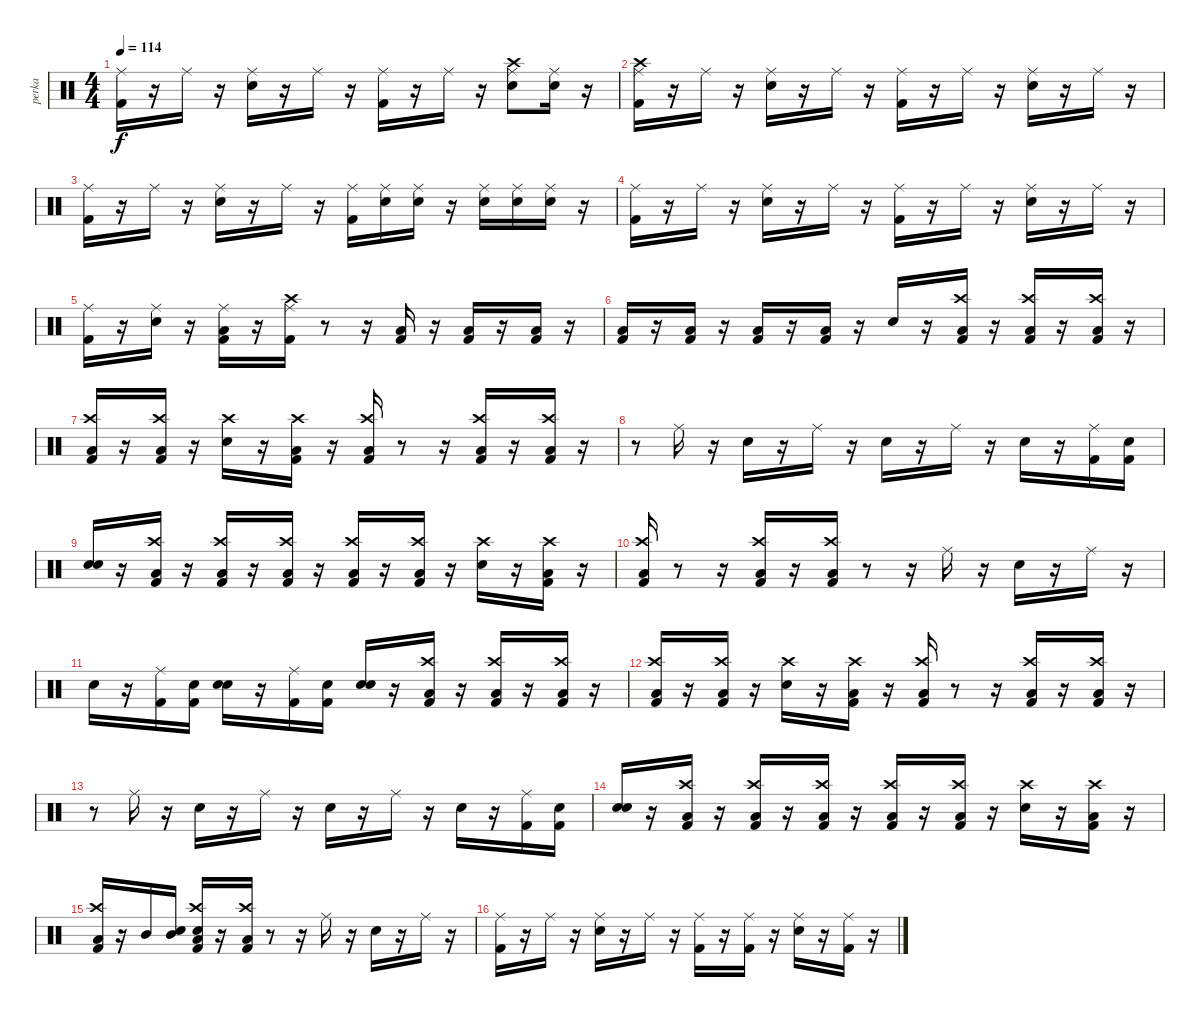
\track ("perka" "perka") {instrument percussion}
\staff {score}
\articulation defaults
\ts (4 4)
\tempo 114
\clef neutral
\ks c
("Kick (hit) 2" "Ride (middle)").16{dy f} r.16 "Ride (middle)".16 r.16 ("Snare (hit) 2" "Ride (middle)").16 r.16 "Ride (middle)".16 r.16 ("Kick (hit) 2" "Ride (middle)").16 r.16 "Ride (middle)".16 r.16 ("Snare (hit) 2" "Ride (middle)" "Crash high (hit)").8 ("Snare (hit)" "Ride (middle)").16 r.16 |
("Kick (hit) 2" "Ride (middle)" "Crash high (hit)").16 r.16 "Ride (middle)".16 r.16 ("Snare (hit) 2" "Ride (middle)").16 r.16 "Ride (middle)".16 r.16 ("Kick (hit) 2" "Ride (middle)").16 r.16 "Ride (middle)".16 r.16 ("Snare (hit) 2" "Ride (middle)").16 r.16 "Ride (middle)".16 r.16 |
("Kick (hit) 2" "Ride (middle)").16 r.16 "Ride (middle)".16 r.16 ("Snare (hit) 2" "Ride (middle)").16 r.16 "Ride (middle)".16 r.16 ("Kick (hit) 2" "Ride (middle)").16 ("Snare (hit)" "Ride (middle)").16 ("Snare (hit)" "Ride (middle)").16 r.16 ("Snare (hit) 2" "Ride (middle)").16 ("Snare (hit)" "Ride (middle)").16 ("Snare (hit)" "Ride (middle)").16 r.16 |
("Kick (hit) 2" "Ride (middle)").16 r.16 "Ride (middle)".16 r.16 ("Snare (hit) 2" "Ride (middle)").16 r.16 "Ride (middle)".16 r.16 ("Kick (hit) 2" "Ride (middle)").16 r.16 "Ride (middle)".16 r.16 ("Snare (hit) 2" "Ride (middle)").16 r.16 "Ride (middle)".16 r.16 |
("Kick (hit) 2" "Ride (middle)").16 r.16 ("Snare (hit) 2" "Ride (middle)").16 r.16 ("Kick (hit) 2" "Ride (middle)" "Low Tom (hit)").16 r.16 ("Kick (hit) 2" "Ride (middle)" "Crash high (hit)").16 r.8 r.16 ("Kick (hit) 2" "Low Floor Tom (hit)").16 r.16 ("Kick (hit) 2" "Low Floor Tom (hit)").16 r.16 ("Kick (hit) 2" "Low Floor Tom (hit)").16 r.16 |
("Kick (hit) 2" "Low Floor Tom (hit)").16 r.16 ("Kick (hit) 2" "Low Floor Tom (hit)").16 r.16 ("Kick (hit) 2" "Low Floor Tom (hit)").16 r.16 ("Kick (hit) 2" "Low Floor Tom (hit)").16 r.16 "Snare (hit) 2".16 r.16 ("Kick (hit) 2" "Low Floor Tom (hit)" "Crash high (hit)").16 r.16 ("Kick (hit) 2" "Low Floor Tom (hit)" "Crash high (hit)").16 r.16 ("Kick (hit) 2" "Low Floor Tom (hit)" "Crash high (hit)").16 r.16 |
("Kick (hit) 2" "Low Floor Tom (hit)" "Crash high (hit)").16 r.16 ("Kick (hit) 2" "Low Floor Tom (hit)" "Crash high (hit)").16 r.16 ("Snare (hit) 2" "Crash high (hit)").16 r.16 ("Kick (hit) 2" "Low Floor Tom (hit)" "Crash high (hit)").16 r.16 ("Kick (hit) 2" "Low Floor Tom (hit)" "Crash high (hit)").16 r.8 r.16 ("Kick (hit) 2" "Low Floor Tom (hit)" "Crash high (hit)").16 r.16 ("Kick (hit) 2" "Low Floor Tom (hit)" "Crash high (hit)").16 r.16 |
r.8 "Ride (middle)".16 r.16 "Snare (hit) 2".16 r.16 "Ride (middle)".16 r.16 "Snare (hit) 2".16 r.16 "Ride (middle)".16 r.16 "Snare (hit) 2".16 r.16 ("Kick (hit) 2" "Ride (middle)").16 ("Snare (hit)" "Kick (hit) 2").16 |
("Snare (hit)" "Snare (hit) 2").16 r.16 ("Kick (hit) 2" "Low Floor Tom (hit)" "Crash high (hit)").16 r.16 ("Kick (hit) 2" "Low Floor Tom (hit)" "Crash high (hit)").16 r.16 ("Kick (hit) 2" "Low Floor Tom (hit)" "Crash high (hit)").16 r.16 ("Kick (hit) 2" "Low Floor Tom (hit)" "Crash high (hit)").16 r.16 ("Kick (hit) 2" "Low Floor Tom (hit)" "Crash high (hit)").16 r.16 ("Snare (hit) 2" "Crash high (hit)").16 r.16 ("Kick (hit) 2" "Low Floor Tom (hit)" "Crash high (hit)").16 r.16 |
("Kick (hit) 2" "Low Floor Tom (hit)" "Crash high (hit)").16 r.8 r.16 ("Kick (hit) 2" "Low Floor Tom (hit)" "Crash high (hit)").16 r.16 ("Kick (hit) 2" "Low Floor Tom (hit)" "Crash high (hit)").16 r.8 r.16 "Ride (middle)".16 r.16 "Snare (hit) 2".16 r.16 "Ride (middle)".16 r.16 |
"Snare (hit) 2".16 r.16 ("Kick (hit) 2" "Ride (middle)").16 ("Snare (hit)" "Kick (hit) 2").16 ("Snare (hit)" "Snare (hit) 2").16 r.16 ("Kick (hit) 2" "Ride (middle)").16 ("Snare (hit)" "Kick (hit) 2").16 ("Snare (hit)" "Snare (hit) 2").16 r.16 ("Kick (hit) 2" "Low Floor Tom (hit)" "Crash high (hit)").16 r.16 ("Kick (hit) 2" "Low Floor Tom (hit)" "Crash high (hit)").16 r.16 ("Kick (hit) 2" "Low Floor Tom (hit)" "Crash high (hit)").16 r.16 |
("Kick (hit) 2" "Low Floor Tom (hit)" "Crash high (hit)").16 r.16 ("Kick (hit) 2" "Low Floor Tom (hit)" "Crash high (hit)").16 r.16 ("Snare (hit) 2" "Crash high (hit)").16 r.16 ("Kick (hit) 2" "Low Floor Tom (hit)" "Crash high (hit)").16 r.16 ("Kick (hit) 2" "Low Floor Tom (hit)" "Crash high (hit)").16 r.8 r.16 ("Kick (hit) 2" "Low Floor Tom (hit)" "Crash high (hit)").16 r.16 ("Kick (hit) 2" "Low Floor Tom (hit)" "Crash high (hit)").16 r.16 |
r.8 "Ride (middle)".16 r.16 "Snare (hit) 2".16 r.16 "Ride (middle)".16 r.16 "Snare (hit) 2".16 r.16 "Ride (middle)".16 r.16 "Snare (hit) 2".16 r.16 ("Kick (hit) 2" "Ride (middle)").16 ("Snare (hit)" "Kick (hit) 2").16 |
("Snare (hit)" "Snare (hit) 2").16 r.16 ("Kick (hit) 2" "Low Floor Tom (hit)" "Crash high (hit)").16 r.16 ("Kick (hit) 2" "Low Floor Tom (hit)" "Crash high (hit)").16 r.16 ("Kick (hit) 2" "Low Floor Tom (hit)" "Crash high (hit)").16 r.16 ("Kick (hit) 2" "Low Floor Tom (hit)" "Crash high (hit)").16 r.16 ("Kick (hit) 2" "Low Floor Tom (hit)" "Crash high (hit)").16 r.16 ("Snare (hit) 2" "Crash high (hit)").16 r.16 ("Kick (hit) 2" "Low Floor Tom (hit)" "Crash high (hit)").16 r.16 |
("Kick (hit) 2" "Low Floor Tom (hit)" "Crash high (hit)").16 r.16 "Mid Tom (hit)".16 ("Snare (hit)" "Mid Tom (hit)").16 ("Snare (hit)" "Kick (hit) 2" "Low Floor Tom (hit)" "Crash high (hit)").16 r.16 ("Kick (hit) 2" "Low Floor Tom (hit)" "Crash high (hit)").16 r.8 r.16 "Ride (middle)".16 r.16 "Snare (hit) 2".16 r.16 "Ride (middle)".16 r.16 |
("Kick (hit) 2" "Ride (middle)").16 r.16 "Ride (middle)".16 r.16 ("Snare (hit) 2" "Ride (middle)").16 r.16 "Ride (middle)".16 r.16 ("Kick (hit) 2" "Ride (middle)").16 r.16 ("Kick (hit) 2" "Ride (middle)").16 r.16 ("Snare (hit) 2" "Ride (middle)").16 r.16 ("Kick (hit) 2" "Ride (middle)").16 r.16
